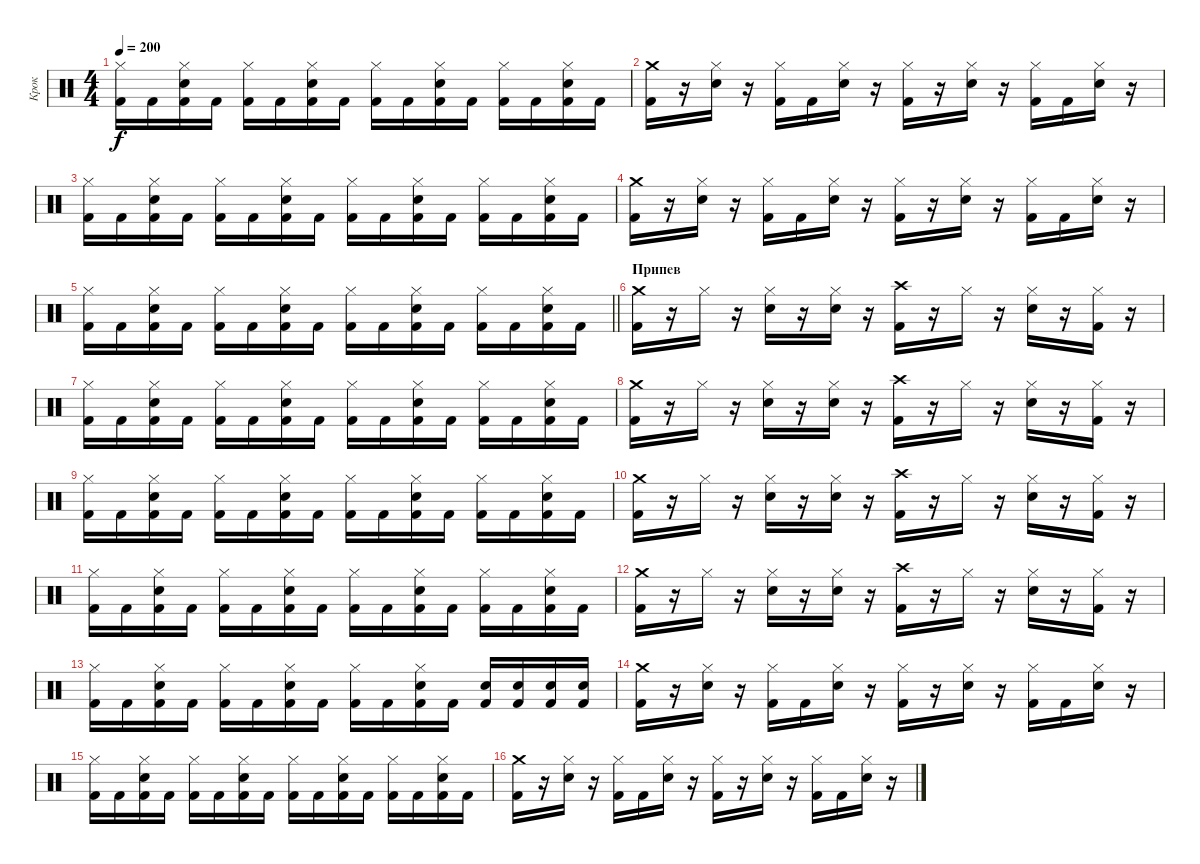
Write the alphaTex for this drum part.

\track ("Крок" "Крок") {instrument percussion}
\staff {score}
\articulation defaults
\ts (4 4)
\tempo 200
\clef neutral
\ks c
("Hi-Hat (closed)" "Kick (hit) 2").16{dy f} "Kick (hit) 2".16 ("Hi-Hat (closed)" "Electric Snare (hit)" "Kick (hit) 2").16 "Kick (hit) 2".16 ("Hi-Hat (closed)" "Kick (hit) 2").16 "Kick (hit) 2".16 ("Hi-Hat (closed)" "Electric Snare (hit)" "Kick (hit) 2").16 "Kick (hit) 2".16 ("Hi-Hat (closed)" "Kick (hit) 2").16 "Kick (hit) 2".16 ("Hi-Hat (closed)" "Electric Snare (hit)" "Kick (hit) 2").16 "Kick (hit) 2".16 ("Hi-Hat (closed)" "Kick (hit) 2").16 "Kick (hit) 2".16 ("Hi-Hat (closed)" "Electric Snare (hit)" "Kick (hit) 2").16 "Kick (hit) 2".16 |
("Crash medium (hit)" "Kick (hit) 2").16 r.16 ("Hi-Hat (closed)" "Electric Snare (hit)").16 r.16 ("Hi-Hat (closed)" "Kick (hit) 2").16 "Kick (hit) 2".16 ("Hi-Hat (closed)" "Electric Snare (hit)").16 r.16 ("Hi-Hat (closed)" "Kick (hit) 2").16 r.16 ("Hi-Hat (closed)" "Electric Snare (hit)").16 r.16 ("Hi-Hat (closed)" "Kick (hit) 2").16 "Kick (hit) 2".16 ("Hi-Hat (closed)" "Electric Snare (hit)").16 r.16 |
("Hi-Hat (closed)" "Kick (hit) 2").16 "Kick (hit) 2".16 ("Hi-Hat (closed)" "Electric Snare (hit)" "Kick (hit) 2").16 "Kick (hit) 2".16 ("Hi-Hat (closed)" "Kick (hit) 2").16 "Kick (hit) 2".16 ("Hi-Hat (closed)" "Electric Snare (hit)" "Kick (hit) 2").16 "Kick (hit) 2".16 ("Hi-Hat (closed)" "Kick (hit) 2").16 "Kick (hit) 2".16 ("Hi-Hat (closed)" "Electric Snare (hit)" "Kick (hit) 2").16 "Kick (hit) 2".16 ("Hi-Hat (closed)" "Kick (hit) 2").16 "Kick (hit) 2".16 ("Hi-Hat (closed)" "Electric Snare (hit)" "Kick (hit) 2").16 "Kick (hit) 2".16 |
("Crash medium (hit)" "Kick (hit) 2").16 r.16 ("Hi-Hat (closed)" "Electric Snare (hit)").16 r.16 ("Hi-Hat (closed)" "Kick (hit) 2").16 "Kick (hit) 2".16 ("Hi-Hat (closed)" "Electric Snare (hit)").16 r.16 ("Hi-Hat (closed)" "Kick (hit) 2").16 r.16 ("Hi-Hat (closed)" "Electric Snare (hit)").16 r.16 ("Hi-Hat (closed)" "Kick (hit) 2").16 "Kick (hit) 2".16 ("Hi-Hat (closed)" "Electric Snare (hit)").16 r.16 |
\barLineRight lightlight
("Hi-Hat (closed)" "Kick (hit) 2").16 "Kick (hit) 2".16 ("Hi-Hat (closed)" "Electric Snare (hit)" "Kick (hit) 2").16 "Kick (hit) 2".16 ("Hi-Hat (closed)" "Kick (hit) 2").16 "Kick (hit) 2".16 ("Hi-Hat (closed)" "Electric Snare (hit)" "Kick (hit) 2").16 "Kick (hit) 2".16 ("Hi-Hat (closed)" "Kick (hit) 2").16 "Kick (hit) 2".16 ("Hi-Hat (closed)" "Electric Snare (hit)" "Kick (hit) 2").16 "Kick (hit) 2".16 ("Hi-Hat (closed)" "Kick (hit) 2").16 "Kick (hit) 2".16 ("Hi-Hat (closed)" "Electric Snare (hit)" "Kick (hit) 2").16 "Kick (hit) 2".16 |
\section ("" "Припев")
("Kick (hit) 2" "Crash medium (hit)").16 r.16 "Hi-Hat (closed)".16 r.16 ("Electric Snare (hit)" "Hi-Hat (closed)").16 r.16 ("Electric Snare (hit)" "Hi-Hat (closed)").16 r.16 ("Kick (hit) 2" "Crash high (hit)").16 r.16 "Hi-Hat (closed)".16 r.16 ("Electric Snare (hit)" "Hi-Hat (closed)").16 r.16 ("Kick (hit) 2" "Hi-Hat (closed)").16 r.16 |
("Kick (hit) 2" "Hi-Hat (closed)").16 "Kick (hit) 2".16 ("Kick (hit) 2" "Electric Snare (hit)" "Hi-Hat (closed)").16 "Kick (hit) 2".16 ("Kick (hit) 2" "Hi-Hat (closed)").16 "Kick (hit) 2".16 ("Kick (hit) 2" "Electric Snare (hit)" "Hi-Hat (closed)").16 "Kick (hit) 2".16 ("Kick (hit) 2" "Hi-Hat (closed)").16 "Kick (hit) 2".16 ("Kick (hit) 2" "Electric Snare (hit)" "Hi-Hat (closed)").16 "Kick (hit) 2".16 ("Kick (hit) 2" "Hi-Hat (closed)").16 "Kick (hit) 2".16 ("Kick (hit) 2" "Electric Snare (hit)" "Hi-Hat (closed)").16 "Kick (hit) 2".16 |
("Kick (hit) 2" "Crash medium (hit)").16 r.16 "Hi-Hat (closed)".16 r.16 ("Electric Snare (hit)" "Hi-Hat (closed)").16 r.16 ("Electric Snare (hit)" "Hi-Hat (closed)").16 r.16 ("Kick (hit) 2" "Crash high (hit)").16 r.16 "Hi-Hat (closed)".16 r.16 ("Electric Snare (hit)" "Hi-Hat (closed)").16 r.16 ("Kick (hit) 2" "Hi-Hat (closed)").16 r.16 |
("Kick (hit) 2" "Hi-Hat (closed)").16 "Kick (hit) 2".16 ("Kick (hit) 2" "Electric Snare (hit)" "Hi-Hat (closed)").16 "Kick (hit) 2".16 ("Kick (hit) 2" "Hi-Hat (closed)").16 "Kick (hit) 2".16 ("Kick (hit) 2" "Electric Snare (hit)" "Hi-Hat (closed)").16 "Kick (hit) 2".16 ("Kick (hit) 2" "Hi-Hat (closed)").16 "Kick (hit) 2".16 ("Kick (hit) 2" "Electric Snare (hit)" "Hi-Hat (closed)").16 "Kick (hit) 2".16 ("Kick (hit) 2" "Hi-Hat (closed)").16 "Kick (hit) 2".16 ("Kick (hit) 2" "Electric Snare (hit)" "Hi-Hat (closed)").16 "Kick (hit) 2".16 |
("Kick (hit) 2" "Crash medium (hit)").16 r.16 "Hi-Hat (closed)".16 r.16 ("Electric Snare (hit)" "Hi-Hat (closed)").16 r.16 ("Electric Snare (hit)" "Hi-Hat (closed)").16 r.16 ("Kick (hit) 2" "Crash high (hit)").16 r.16 "Hi-Hat (closed)".16 r.16 ("Electric Snare (hit)" "Hi-Hat (closed)").16 r.16 ("Kick (hit) 2" "Hi-Hat (closed)").16 r.16 |
("Kick (hit) 2" "Hi-Hat (closed)").16 "Kick (hit) 2".16 ("Kick (hit) 2" "Electric Snare (hit)" "Hi-Hat (closed)").16 "Kick (hit) 2".16 ("Kick (hit) 2" "Hi-Hat (closed)").16 "Kick (hit) 2".16 ("Kick (hit) 2" "Electric Snare (hit)" "Hi-Hat (closed)").16 "Kick (hit) 2".16 ("Kick (hit) 2" "Hi-Hat (closed)").16 "Kick (hit) 2".16 ("Kick (hit) 2" "Electric Snare (hit)" "Hi-Hat (closed)").16 "Kick (hit) 2".16 ("Kick (hit) 2" "Hi-Hat (closed)").16 "Kick (hit) 2".16 ("Kick (hit) 2" "Electric Snare (hit)" "Hi-Hat (closed)").16 "Kick (hit) 2".16 |
("Kick (hit) 2" "Crash medium (hit)").16 r.16 "Hi-Hat (closed)".16 r.16 ("Electric Snare (hit)" "Hi-Hat (closed)").16 r.16 ("Electric Snare (hit)" "Hi-Hat (closed)").16 r.16 ("Kick (hit) 2" "Crash high (hit)").16 r.16 "Hi-Hat (closed)".16 r.16 ("Electric Snare (hit)" "Hi-Hat (closed)").16 r.16 ("Kick (hit) 2" "Hi-Hat (closed)").16 r.16 |
("Kick (hit) 2" "Hi-Hat (closed)").16 "Kick (hit) 2".16 ("Kick (hit) 2" "Electric Snare (hit)" "Hi-Hat (closed)").16 "Kick (hit) 2".16 ("Kick (hit) 2" "Hi-Hat (closed)").16 "Kick (hit) 2".16 ("Kick (hit) 2" "Electric Snare (hit)" "Hi-Hat (closed)").16 "Kick (hit) 2".16 ("Kick (hit) 2" "Hi-Hat (closed)").16 "Kick (hit) 2".16 ("Kick (hit) 2" "Electric Snare (hit)" "Hi-Hat (closed)").16 "Kick (hit) 2".16 ("Kick (hit) 2" "Electric Snare (hit)").16 ("Kick (hit) 2" "Electric Snare (hit)").16 ("Kick (hit) 2" "Electric Snare (hit)").16 ("Kick (hit) 2" "Electric Snare (hit)").16 |
("Crash medium (hit)" "Kick (hit) 2").16 r.16 ("Hi-Hat (closed)" "Electric Snare (hit)").16 r.16 ("Hi-Hat (closed)" "Kick (hit) 2").16 "Kick (hit) 2".16 ("Hi-Hat (closed)" "Electric Snare (hit)").16 r.16 ("Hi-Hat (closed)" "Kick (hit) 2").16 r.16 ("Hi-Hat (closed)" "Electric Snare (hit)").16 r.16 ("Hi-Hat (closed)" "Kick (hit) 2").16 "Kick (hit) 2".16 ("Hi-Hat (closed)" "Electric Snare (hit)").16 r.16 |
("Hi-Hat (closed)" "Kick (hit) 2").16 "Kick (hit) 2".16 ("Hi-Hat (closed)" "Electric Snare (hit)" "Kick (hit) 2").16 "Kick (hit) 2".16 ("Hi-Hat (closed)" "Kick (hit) 2").16 "Kick (hit) 2".16 ("Hi-Hat (closed)" "Electric Snare (hit)" "Kick (hit) 2").16 "Kick (hit) 2".16 ("Hi-Hat (closed)" "Kick (hit) 2").16 "Kick (hit) 2".16 ("Hi-Hat (closed)" "Electric Snare (hit)" "Kick (hit) 2").16 "Kick (hit) 2".16 ("Hi-Hat (closed)" "Kick (hit) 2").16 "Kick (hit) 2".16 ("Hi-Hat (closed)" "Electric Snare (hit)" "Kick (hit) 2").16 "Kick (hit) 2".16 |
("Crash medium (hit)" "Kick (hit) 2").16 r.16 ("Hi-Hat (closed)" "Electric Snare (hit)").16 r.16 ("Hi-Hat (closed)" "Kick (hit) 2").16 "Kick (hit) 2".16 ("Hi-Hat (closed)" "Electric Snare (hit)").16 r.16 ("Hi-Hat (closed)" "Kick (hit) 2").16 r.16 ("Hi-Hat (closed)" "Electric Snare (hit)").16 r.16 ("Hi-Hat (closed)" "Kick (hit) 2").16 "Kick (hit) 2".16 ("Hi-Hat (closed)" "Electric Snare (hit)").16 r.16
